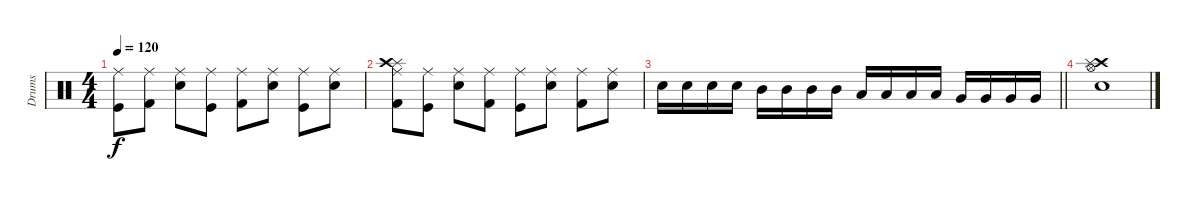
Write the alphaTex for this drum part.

\track ("Drums" "Drums") {instrument percussion}
\staff {score}
\articulation defaults
\ts (4 4)
\tempo 120
\clef neutral
\ks c
("Kick (hit)" "Ride (middle)").8{dy f} ("Kick (hit) 2" "Ride (middle)").8 ("Snare (hit) 2" "Ride (middle)").8 ("Kick (hit)" "Ride (middle)").8 ("Kick (hit) 2" "Ride (middle)").8 ("Snare (hit) 2" "Ride (middle)").8 ("Kick (hit)" "Ride (middle)").8 ("Snare (hit) 2" "Ride (middle)").8 |
("Kick (hit) 2" "Splash (hit)" "Crash high (hit)" "Ride (middle)").8 ("Kick (hit)" "Ride (middle)").8 ("Snare (hit) 2" "Ride (middle)").8 ("Kick (hit) 2" "Ride (middle)").8 ("Kick (hit)" "Ride (middle)").8 ("Snare (hit) 2" "Ride (middle)").8 ("Kick (hit) 2" "Ride (middle)").8 ("Snare (hit) 2" "Ride (middle)").8 |
\barLineRight lightlight "Snare (hit) 2".16 "Snare (hit) 2".16 "Snare (hit) 2".16 "Snare (hit) 2".16 "Mid Tom (hit)".16 "Mid Tom (hit)".16 "Mid Tom (hit)".16 "Mid Tom (hit)".16 "Low Tom (hit)".16 "Low Tom (hit)".16 "Low Tom (hit)".16 "Low Tom (hit)".16 "Very Low Tom (hit)".16 "Very Low Tom (hit)".16 "Very Low Tom (hit)".16 "Very Low Tom (hit)".16
|
("Crash high (hit)" "Splash (hit)" "Snare (hit) 2" "Hi-Hat (open)").1
